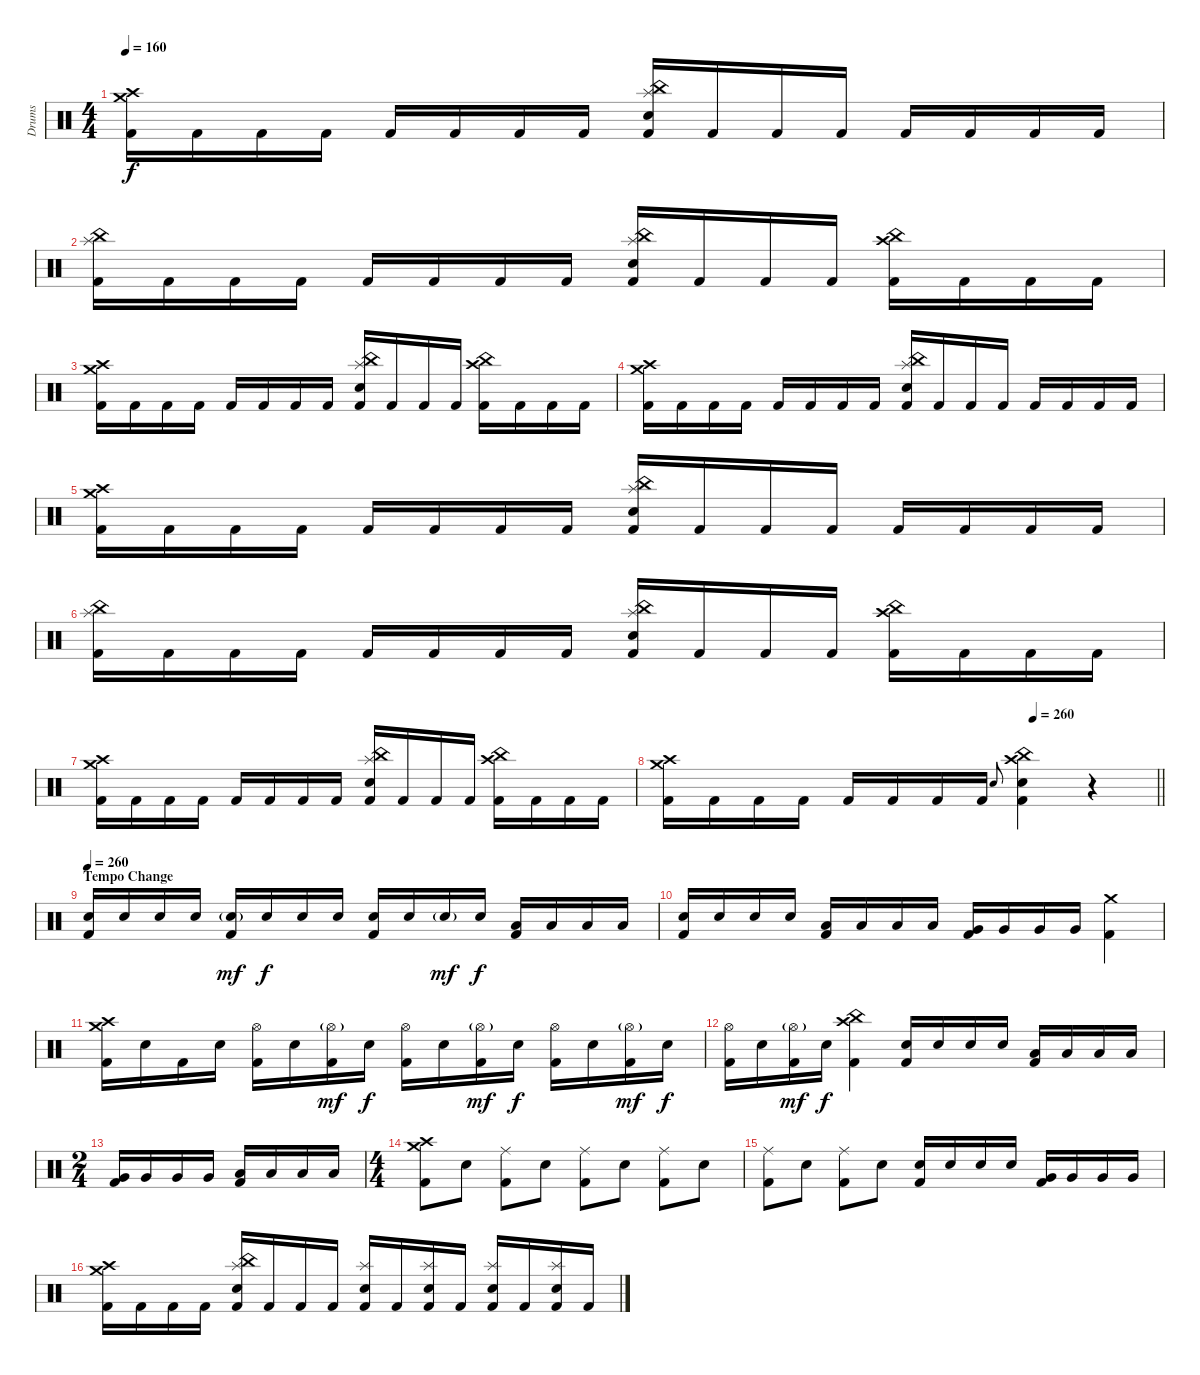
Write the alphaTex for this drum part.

\track ("Drums" "Drums") {instrument percussion}
\staff {score}
\articulation defaults
\ts (4 4)
\tempo 160
\clef neutral
\ks c
("Crash high (hit)" "Crash medium (hit)" "Kick (hit) 2").16{dy f} "Kick (hit) 2".16 "Kick (hit) 2".16 "Kick (hit) 2".16 "Kick (hit) 2".16 "Kick (hit) 2".16 "Kick (hit) 2".16 "Kick (hit) 2".16 ("China (hit)" "Splash (hit)" "Electric Snare (hit)" "Kick (hit) 2").16 "Kick (hit) 2".16 "Kick (hit) 2".16 "Kick (hit) 2".16 "Kick (hit) 2".16 "Kick (hit) 2".16 "Kick (hit) 2".16 "Kick (hit) 2".16 |
("China (hit)" "Splash (hit)" "Kick (hit) 2").16 "Kick (hit) 2".16 "Kick (hit) 2".16 "Kick (hit) 2".16 "Kick (hit) 2".16 "Kick (hit) 2".16 "Kick (hit) 2".16 "Kick (hit) 2".16 ("China (hit)" "Splash (hit)" "Electric Snare (hit)" "Kick (hit) 2").16 "Kick (hit) 2".16 "Kick (hit) 2".16 "Kick (hit) 2".16 ("Crash high (hit)" "China (hit)" "Kick (hit) 2").16 "Kick (hit) 2".16 "Kick (hit) 2".16 "Kick (hit) 2".16 |
("Crash high (hit)" "Crash medium (hit)" "Kick (hit) 2").16 "Kick (hit) 2".16 "Kick (hit) 2".16 "Kick (hit) 2".16 "Kick (hit) 2".16 "Kick (hit) 2".16 "Kick (hit) 2".16 "Kick (hit) 2".16 ("China (hit)" "Splash (hit)" "Electric Snare (hit)" "Kick (hit) 2").16 "Kick (hit) 2".16 "Kick (hit) 2".16 "Kick (hit) 2".16 ("Crash high (hit)" "China (hit)" "Kick (hit) 2").16 "Kick (hit) 2".16 "Kick (hit) 2".16 "Kick (hit) 2".16 |
("Crash medium (hit)" "Crash high (hit)" "Kick (hit) 2").16 "Kick (hit) 2".16 "Kick (hit) 2".16 "Kick (hit) 2".16 "Kick (hit) 2".16 "Kick (hit) 2".16 "Kick (hit) 2".16 "Kick (hit) 2".16 ("China (hit)" "Splash (hit)" "Electric Snare (hit)" "Kick (hit) 2").16 "Kick (hit) 2".16 "Kick (hit) 2".16 "Kick (hit) 2".16 "Kick (hit) 2".16 "Kick (hit) 2".16 "Kick (hit) 2".16 "Kick (hit) 2".16 |
("Crash high (hit)" "Crash medium (hit)" "Kick (hit) 2").16 "Kick (hit) 2".16 "Kick (hit) 2".16 "Kick (hit) 2".16 "Kick (hit) 2".16 "Kick (hit) 2".16 "Kick (hit) 2".16 "Kick (hit) 2".16 ("China (hit)" "Splash (hit)" "Electric Snare (hit)" "Kick (hit) 2").16 "Kick (hit) 2".16 "Kick (hit) 2".16 "Kick (hit) 2".16 "Kick (hit) 2".16 "Kick (hit) 2".16 "Kick (hit) 2".16 "Kick (hit) 2".16 |
("China (hit)" "Splash (hit)" "Kick (hit) 2").16 "Kick (hit) 2".16 "Kick (hit) 2".16 "Kick (hit) 2".16 "Kick (hit) 2".16 "Kick (hit) 2".16 "Kick (hit) 2".16 "Kick (hit) 2".16 ("China (hit)" "Splash (hit)" "Electric Snare (hit)" "Kick (hit) 2").16 "Kick (hit) 2".16 "Kick (hit) 2".16 "Kick (hit) 2".16 ("Crash high (hit)" "China (hit)" "Kick (hit) 2").16 "Kick (hit) 2".16 "Kick (hit) 2".16 "Kick (hit) 2".16 |
("Crash high (hit)" "Crash medium (hit)" "Kick (hit) 2").16 "Kick (hit) 2".16 "Kick (hit) 2".16 "Kick (hit) 2".16 "Kick (hit) 2".16 "Kick (hit) 2".16 "Kick (hit) 2".16 "Kick (hit) 2".16 ("China (hit)" "Splash (hit)" "Electric Snare (hit)" "Kick (hit) 2").16 "Kick (hit) 2".16 "Kick (hit) 2".16 "Kick (hit) 2".16 ("Crash high (hit)" "China (hit)" "Kick (hit) 2").16 "Kick (hit) 2".16 "Kick (hit) 2".16 "Kick (hit) 2".16 |
\tempo (260 0.75)
\barLineRight lightlight
("Crash medium (hit)" "Crash high (hit)" "Kick (hit) 2").16 "Kick (hit) 2".16 "Kick (hit) 2".16 "Kick (hit) 2".16 "Kick (hit) 2".16 "Kick (hit) 2".16 "Kick (hit) 2".16 "Kick (hit) 2".16 "Electric Snare (hit)".8{gr onbeat} ("China (hit)" "Crash high (hit)" "Electric Snare (hit)" "Kick (hit) 2").4 r.4 |
\section ("" "Tempo Change")
\tempo 260
("Electric Snare (hit)" "Kick (hit) 2").16 "Electric Snare (hit)".16 "Electric Snare (hit)".16 "Electric Snare (hit)".16 ("Electric Snare (hit)"{g} "Kick (hit) 2").16{dy mf} "Electric Snare (hit)".16{dy f} "Electric Snare (hit)".16 "Electric Snare (hit)".16 ("Electric Snare (hit)" "Kick (hit) 2").16 "Electric Snare (hit)".16 "Electric Snare (hit)"{g}.16{dy mf} "Electric Snare (hit)".16{dy f} ("Low Tom (hit)" "Kick (hit) 2").16 "Low Tom (hit)".16 "Low Tom (hit)".16 "Low Tom (hit)".16 |
("Electric Snare (hit)" "Kick (hit) 2").16 "Electric Snare (hit)".16 "Electric Snare (hit)".16 "Electric Snare (hit)".16 ("Low Tom (hit)" "Kick (hit) 2").16 "Low Tom (hit)".16 "Low Tom (hit)".16 "Low Tom (hit)".16 ("Very Low Tom (hit)" "Kick (hit) 2").16 "Very Low Tom (hit)".16 "Very Low Tom (hit)".16 "Very Low Tom (hit)".16 ("Crash medium (hit)" "Kick (hit) 2").4 |
("Crash high (hit)" "Crash medium (hit)" "Kick (hit) 2").16 "Electric Snare (hit)".16 "Kick (hit) 2".16 "Electric Snare (hit)".16 ("Hi-Hat (open)" "Kick (hit) 2").16 "Electric Snare (hit)".16 ("Hi-Hat (open)"{g} "Kick (hit) 2").16{dy mf} "Electric Snare (hit)".16{dy f} ("Hi-Hat (open)" "Kick (hit) 2").16 "Electric Snare (hit)".16 ("Hi-Hat (open)"{g} "Kick (hit) 2").16{dy mf} "Electric Snare (hit)".16{dy f} ("Hi-Hat (open)" "Kick (hit) 2").16 "Electric Snare (hit)".16 ("Hi-Hat (open)"{g} "Kick (hit) 2").16{dy mf} "Electric Snare (hit)".16{dy f} |
("Hi-Hat (open)" "Kick (hit) 2").16 "Electric Snare (hit)".16 ("Hi-Hat (open)"{g} "Kick (hit) 2").16{dy mf} "Electric Snare (hit)".16{dy f} ("Crash high (hit)" "China (hit)" "Kick (hit) 2").4 ("Electric Snare (hit)" "Kick (hit) 2").16 "Electric Snare (hit)".16 "Electric Snare (hit)".16 "Electric Snare (hit)".16 ("Low Tom (hit)" "Kick (hit) 2").16 "Low Tom (hit)".16 "Low Tom (hit)".16 "Low Tom (hit)".16 |
\ts (2 4)
("Very Low Tom (hit)" "Kick (hit) 2").16 "Very Low Tom (hit)".16 "Very Low Tom (hit)".16 "Very Low Tom (hit)".16 ("Low Floor Tom (hit)" "Kick (hit) 2").16 "Low Floor Tom (hit)".16 "Low Floor Tom (hit)".16 "Low Floor Tom (hit)".16 |
\ts (4 4)
("Crash high (hit)" "Crash medium (hit)" "Kick (hit) 2").8 "Electric Snare (hit)".8 ("Ride (middle)" "Kick (hit) 2").8 "Electric Snare (hit)".8 ("Ride (middle)" "Kick (hit) 2").8 "Electric Snare (hit)".8 ("Ride (middle)" "Kick (hit) 2").8 "Electric Snare (hit)".8 |
("Ride (middle)" "Kick (hit) 2").8 "Electric Snare (hit)".8 ("Ride (middle)" "Kick (hit) 2").8 "Electric Snare (hit)".8 ("Electric Snare (hit)" "Kick (hit) 2").16 "Electric Snare (hit)".16 "Electric Snare (hit)".16 "Electric Snare (hit)".16 ("Very Low Tom (hit)" "Kick (hit) 2").16 "Very Low Tom (hit)".16 "Very Low Tom (hit)".16 "Very Low Tom (hit)".16 |
("Crash high (hit)" "Crash medium (hit)" "Kick (hit) 2").16 "Kick (hit) 2".16 "Kick (hit) 2".16 "Kick (hit) 2".16 ("China (hit)" "Splash (hit)" "Electric Snare (hit)" "Kick (hit) 2").16 "Kick (hit) 2".16 "Kick (hit) 2".16 "Kick (hit) 2".16 ("Splash (hit)" "Electric Snare (hit)" "Kick (hit) 2").16 "Kick (hit) 2".16 ("Splash (hit)" "Electric Snare (hit)" "Kick (hit) 2").16 "Kick (hit) 2".16 ("Splash (hit)" "Electric Snare (hit)" "Kick (hit) 2").16 "Kick (hit) 2".16 ("Splash (hit)" "Electric Snare (hit)" "Kick (hit) 2").16 "Kick (hit) 2".16
